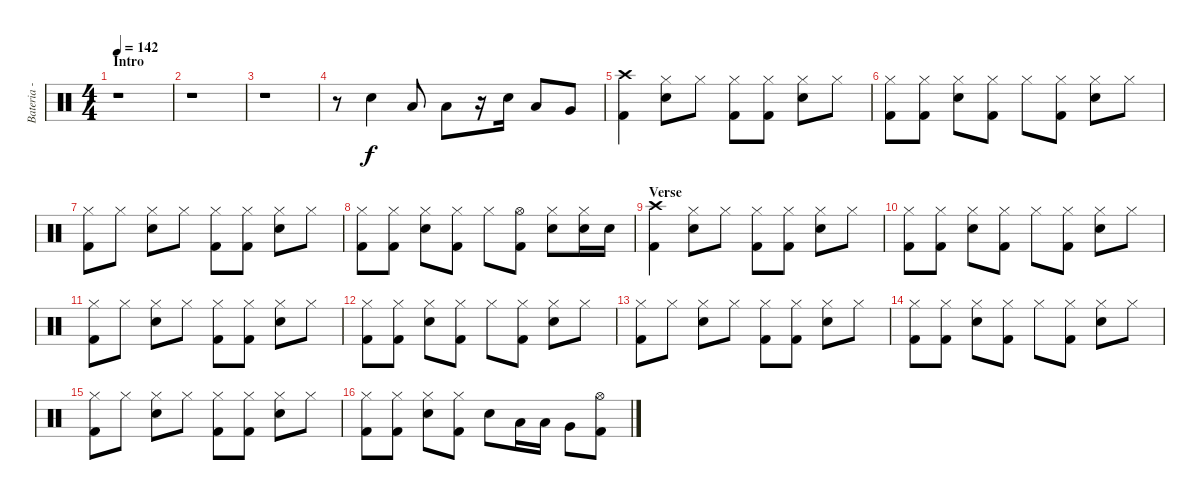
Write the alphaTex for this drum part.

\track ("Bateria - Larzon" "Bateria - ") {instrument percussion}
\staff {score}
\articulation defaults
\ts (4 4)
\section ("" "Intro")
\tempo 142
\clef neutral
\ks c
r.1{dy f} |
r.1 |
r.1 |
r.8 "Snare (hit) 2".4 "Low Tom (hit)".8 "Low Tom (hit)".8 r.16 "Snare (hit) 2".16 "Low Tom (hit)".8 "Very Low Tom (hit)".8 |
("Crash high (hit)" "Kick (hit) 2").4 ("Hi-Hat (closed)" "Snare (hit) 2").8 "Hi-Hat (closed)".8 ("Hi-Hat (closed)" "Kick (hit) 2").8 ("Hi-Hat (closed)" "Kick (hit) 2").8 ("Hi-Hat (closed)" "Snare (hit) 2").8 "Hi-Hat (closed)".8 |
("Hi-Hat (closed)" "Kick (hit) 2").8 ("Hi-Hat (closed)" "Kick (hit) 2").8 ("Hi-Hat (closed)" "Snare (hit) 2").8 ("Hi-Hat (closed)" "Kick (hit) 2").8 "Hi-Hat (closed)".8 ("Hi-Hat (closed)" "Kick (hit) 2").8 ("Hi-Hat (closed)" "Snare (hit) 2").8 "Hi-Hat (closed)".8 |
("Kick (hit) 2" "Hi-Hat (closed)").8 "Hi-Hat (closed)".8 ("Hi-Hat (closed)" "Snare (hit) 2").8 "Hi-Hat (closed)".8 ("Hi-Hat (closed)" "Kick (hit) 2").8 ("Hi-Hat (closed)" "Kick (hit) 2").8 ("Hi-Hat (closed)" "Snare (hit) 2").8 "Hi-Hat (closed)".8 |
("Hi-Hat (closed)" "Kick (hit) 2").8 ("Hi-Hat (closed)" "Kick (hit) 2").8 ("Hi-Hat (closed)" "Snare (hit) 2").8 ("Hi-Hat (closed)" "Kick (hit) 2").8 "Hi-Hat (closed)".8 ("Kick (hit) 2" "Hi-Hat (open)").8 ("Hi-Hat (closed)" "Snare (hit) 2").8 ("Hi-Hat (closed)" "Snare (hit) 2").16 "Snare (hit) 2".16 |
\section ("" "Verse")
("Crash high (hit)" "Kick (hit) 2").4 ("Hi-Hat (closed)" "Snare (hit) 2").8 "Hi-Hat (closed)".8 ("Hi-Hat (closed)" "Kick (hit) 2").8 ("Hi-Hat (closed)" "Kick (hit) 2").8 ("Hi-Hat (closed)" "Snare (hit) 2").8 "Hi-Hat (closed)".8 |
("Hi-Hat (closed)" "Kick (hit) 2").8 ("Hi-Hat (closed)" "Kick (hit) 2").8 ("Hi-Hat (closed)" "Snare (hit) 2").8 ("Hi-Hat (closed)" "Kick (hit) 2").8 "Hi-Hat (closed)".8 ("Hi-Hat (closed)" "Kick (hit) 2").8 ("Hi-Hat (closed)" "Snare (hit) 2").8 "Hi-Hat (closed)".8 |
("Kick (hit) 2" "Hi-Hat (closed)").8 "Hi-Hat (closed)".8 ("Hi-Hat (closed)" "Snare (hit) 2").8 "Hi-Hat (closed)".8 ("Hi-Hat (closed)" "Kick (hit) 2").8 ("Hi-Hat (closed)" "Kick (hit) 2").8 ("Hi-Hat (closed)" "Snare (hit) 2").8 "Hi-Hat (closed)".8 |
("Hi-Hat (closed)" "Kick (hit) 2").8 ("Hi-Hat (closed)" "Kick (hit) 2").8 ("Hi-Hat (closed)" "Snare (hit) 2").8 ("Hi-Hat (closed)" "Kick (hit) 2").8 "Hi-Hat (closed)".8 ("Kick (hit) 2" "Hi-Hat (closed)").8 ("Hi-Hat (closed)" "Snare (hit) 2").8 "Hi-Hat (closed)".8 |
("Kick (hit) 2" "Hi-Hat (closed)").8 "Hi-Hat (closed)".8 ("Hi-Hat (closed)" "Snare (hit) 2").8 "Hi-Hat (closed)".8 ("Hi-Hat (closed)" "Kick (hit) 2").8 ("Hi-Hat (closed)" "Kick (hit) 2").8 ("Hi-Hat (closed)" "Snare (hit) 2").8 "Hi-Hat (closed)".8 |
("Hi-Hat (closed)" "Kick (hit) 2").8 ("Hi-Hat (closed)" "Kick (hit) 2").8 ("Hi-Hat (closed)" "Snare (hit) 2").8 ("Hi-Hat (closed)" "Kick (hit) 2").8 "Hi-Hat (closed)".8 ("Kick (hit) 2" "Hi-Hat (closed)").8 ("Hi-Hat (closed)" "Snare (hit) 2").8 "Hi-Hat (closed)".8 |
("Kick (hit) 2" "Hi-Hat (closed)").8 "Hi-Hat (closed)".8 ("Hi-Hat (closed)" "Snare (hit) 2").8 "Hi-Hat (closed)".8 ("Hi-Hat (closed)" "Kick (hit) 2").8 ("Hi-Hat (closed)" "Kick (hit) 2").8 ("Hi-Hat (closed)" "Snare (hit) 2").8 "Hi-Hat (closed)".8 |
("Hi-Hat (closed)" "Kick (hit) 2").8 ("Hi-Hat (closed)" "Kick (hit) 2").8 ("Hi-Hat (closed)" "Snare (hit) 2").8 ("Hi-Hat (closed)" "Kick (hit) 2").8 "Snare (hit) 2".8 "Low Tom (hit)".16 "Low Tom (hit)".16 "Very Low Tom (hit)".8 ("Hi-Hat (open)" "Kick (hit) 2").8
